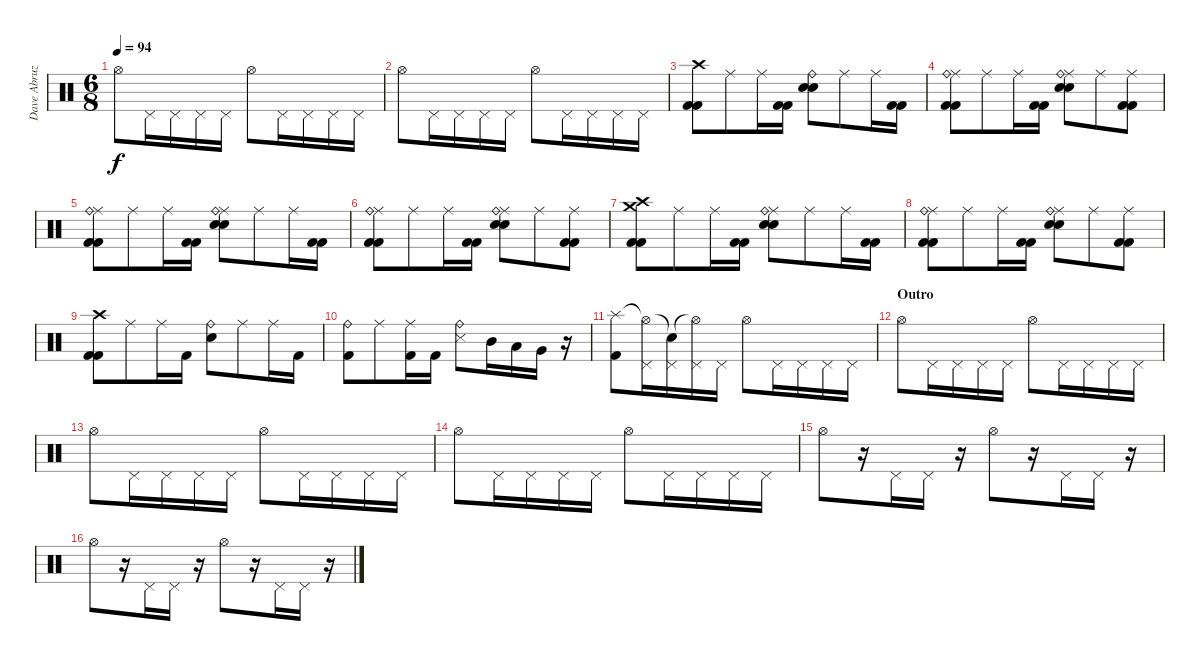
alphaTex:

\track ("Dave Abruzzese" "Dave Abruz") {instrument percussion}
\staff {score}
\articulation defaults
\ts (6 8)
\tempo 94
\clef neutral
\ks c "Hi-Hat (open)".8{dy f} "Pedal Hi-Hat (hit)".16 "Pedal Hi-Hat (hit)".16 "Pedal Hi-Hat (hit)".16 "Pedal Hi-Hat (hit)".16 "Hi-Hat (open)".8 "Pedal Hi-Hat (hit)".16 "Pedal Hi-Hat (hit)".16 "Pedal Hi-Hat (hit)".16 "Pedal Hi-Hat (hit)".16
|
"Hi-Hat (open)".8 "Pedal Hi-Hat (hit)".16 "Pedal Hi-Hat (hit)".16 "Pedal Hi-Hat (hit)".16 "Pedal Hi-Hat (hit)".16 "Hi-Hat (open)".8 "Pedal Hi-Hat (hit)".16 "Pedal Hi-Hat (hit)".16 "Pedal Hi-Hat (hit)".16 "Pedal Hi-Hat (hit)".16 |
\section ("" "")
("Crash high (hit)" "Kick (hit) 2" "Kick (hit) 2").8 "Ride (middle)".8 "Ride (middle)".16 ("Kick (hit) 2" "Kick (hit) 2").16 ("Ride (bell)" "Electric Snare (hit)" "Electric Snare (hit)").8 "Ride (middle)".8 "Ride (middle)".16 ("Kick (hit) 2" "Kick (hit) 2").16 |
("Ride (middle)" "Ride (bell)" "Kick (hit) 2" "Kick (hit) 2").8 "Ride (middle)".8 "Ride (middle)".16 ("Kick (hit) 2" "Kick (hit) 2").16 ("Ride (middle)" "Ride (bell)" "Electric Snare (hit)" "Electric Snare (hit)").8 "Ride (middle)".8 ("Ride (middle)" "Kick (hit) 2" "Kick (hit) 2").8 |
("Ride (middle)" "Ride (bell)" "Kick (hit) 2" "Kick (hit) 2").8 "Ride (middle)".8 "Ride (middle)".16 ("Kick (hit) 2" "Kick (hit) 2").16 ("Ride (middle)" "Ride (bell)" "Electric Snare (hit)" "Electric Snare (hit)").8 "Ride (middle)".8 "Ride (middle)".16 ("Kick (hit) 2" "Kick (hit) 2").16 |
("Ride (middle)" "Ride (bell)" "Kick (hit) 2" "Kick (hit) 2").8 "Ride (middle)".8 "Ride (middle)".16 ("Kick (hit) 2" "Kick (hit) 2").16 ("Ride (middle)" "Ride (bell)" "Electric Snare (hit)" "Electric Snare (hit)").8 "Ride (middle)".8 ("Ride (middle)" "Kick (hit) 2" "Kick (hit) 2").8 |
("Crash medium (hit)" "Crash high (hit)" "Kick (hit) 2" "Kick (hit) 2").8 "Ride (middle)".8 "Ride (middle)".16 ("Kick (hit) 2" "Kick (hit) 2").16 ("Ride (middle)" "Ride (bell)" "Electric Snare (hit)" "Electric Snare (hit)").8 "Ride (middle)".8 "Ride (middle)".16 ("Kick (hit) 2" "Kick (hit) 2").16 |
("Ride (middle)" "Ride (bell)" "Kick (hit) 2" "Kick (hit) 2").8 "Ride (middle)".8 "Ride (middle)".16 ("Kick (hit) 2" "Kick (hit) 2").16 ("Ride (middle)" "Ride (bell)" "Electric Snare (hit)" "Electric Snare (hit)").8 "Ride (middle)".8 ("Ride (middle)" "Kick (hit) 2" "Kick (hit) 2").8 |
("Crash high (hit)" "Kick (hit) 2" "Kick (hit) 2").8 "Ride (middle)".8 "Ride (middle)".16 "Kick (hit) 2".16 ("Ride (bell)" "Electric Snare (hit)").8 "Ride (middle)".8 "Ride (middle)".16 "Kick (hit) 2".16 |
("Ride (bell)" "Kick (hit) 2").8 "Ride (middle)".8 ("Ride (middle)" "Kick (hit) 2").16 "Kick (hit) 2".16 ("Ride (bell)" "Snare (side stick) 3").8 "Mid Tom (hit)".16 "Low Tom (hit)".16 "Very Low Tom (hit)".16 r.16 |
("Splash (hit)" "Kick (hit) 2").8 ("Hi-Hat (open)"{t} "Pedal Hi-Hat (hit)").16 ("Snare (hit)"{t} "Pedal Hi-Hat (hit)").16 ("Hi-Hat (open)"{t} "Pedal Hi-Hat (hit)").16 "Pedal Hi-Hat (hit)".16 "Hi-Hat (open)".8 "Pedal Hi-Hat (hit)".16 "Pedal Hi-Hat (hit)".16 "Pedal Hi-Hat (hit)".16 "Pedal Hi-Hat (hit)".16 |
\section ("" "Outro")
"Hi-Hat (open)".8 "Pedal Hi-Hat (hit)".16 "Pedal Hi-Hat (hit)".16 "Pedal Hi-Hat (hit)".16 "Pedal Hi-Hat (hit)".16 "Hi-Hat (open)".8 "Pedal Hi-Hat (hit)".16 "Pedal Hi-Hat (hit)".16 "Pedal Hi-Hat (hit)".16 "Pedal Hi-Hat (hit)".16 |
"Hi-Hat (open)".8 "Pedal Hi-Hat (hit)".16 "Pedal Hi-Hat (hit)".16 "Pedal Hi-Hat (hit)".16 "Pedal Hi-Hat (hit)".16 "Hi-Hat (open)".8 "Pedal Hi-Hat (hit)".16 "Pedal Hi-Hat (hit)".16 "Pedal Hi-Hat (hit)".16 "Pedal Hi-Hat (hit)".16 |
"Hi-Hat (open)".8 "Pedal Hi-Hat (hit)".16 "Pedal Hi-Hat (hit)".16 "Pedal Hi-Hat (hit)".16 "Pedal Hi-Hat (hit)".16 "Hi-Hat (open)".8 "Pedal Hi-Hat (hit)".16 "Pedal Hi-Hat (hit)".16 "Pedal Hi-Hat (hit)".16 "Pedal Hi-Hat (hit)".16 |
"Hi-Hat (open)".8 r.16 "Pedal Hi-Hat (hit)".16 "Pedal Hi-Hat (hit)".16 r.16 "Hi-Hat (open)".8 r.16 "Pedal Hi-Hat (hit)".16 "Pedal Hi-Hat (hit)".16 r.16 |
"Hi-Hat (open)".8 r.16 "Pedal Hi-Hat (hit)".16 "Pedal Hi-Hat (hit)".16 r.16 "Hi-Hat (open)".8 r.16 "Pedal Hi-Hat (hit)".16 "Pedal Hi-Hat (hit)".16 r.16
